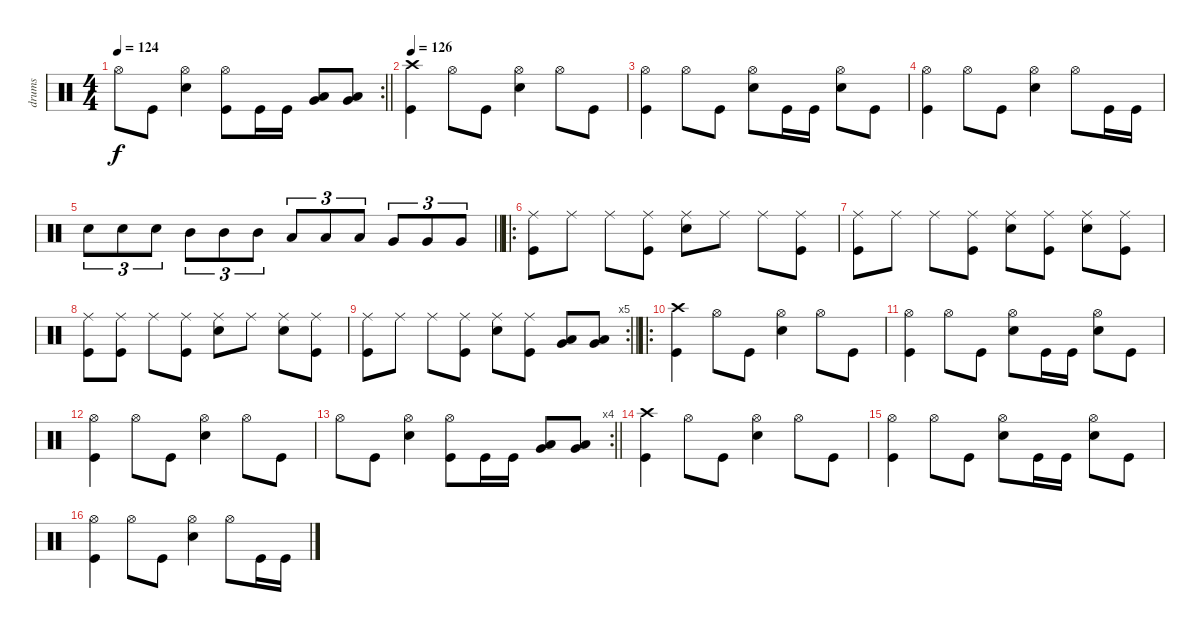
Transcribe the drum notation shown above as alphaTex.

\track ("drums" "drums") {instrument percussion}
\staff {score}
\articulation defaults
\rc 2
\ts (4 4)
\tempo 124
\clef neutral
\barLineRight lightlight
\ks c "Hi-Hat (open)".8{dy f} "Kick (hit)".8
("Electric Snare (hit)" "Hi-Hat (open)").4 ("Kick (hit)" "Hi-Hat (open)").8 "Kick (hit)".16 "Kick (hit)".16 ("Very Low Tom (hit)" "Low Floor Tom (hit)").8 ("Very Low Tom (hit)" "Low Floor Tom (hit)").8 |
\section ("" "")
\tempo 126
("Kick (hit)" "Crash high (hit)").4 "Hi-Hat (open)".8 "Kick (hit)".8 ("Electric Snare (hit)" "Hi-Hat (open)").4 "Hi-Hat (open)".8 "Kick (hit)".8 |
("Kick (hit)" "Hi-Hat (open)").4 "Hi-Hat (open)".8 "Kick (hit)".8 ("Electric Snare (hit)" "Hi-Hat (open)").8 "Kick (hit)".16 "Kick (hit)".16 ("Electric Snare (hit)" "Hi-Hat (open)").8 "Kick (hit)".8 |
("Kick (hit)" "Hi-Hat (open)").4 "Hi-Hat (open)".8 "Kick (hit)".8 ("Hi-Hat (open)" "Electric Snare (hit)").4 "Hi-Hat (open)".8 "Kick (hit)".16 "Kick (hit)".16 |
\barLineRight lightlight "Electric Snare (hit)".8{tu (3 2)} "Electric Snare (hit)".8{tu (3 2)} "Electric Snare (hit)".8{tu (3 2)} "Mid Tom (hit)".8{tu (3 2)} "Mid Tom (hit)".8{tu (3 2)} "Mid Tom (hit)".8{tu (3 2)} "Low Tom (hit)".8{tu (3 2)} "Low Tom (hit)".8{tu (3 2)} "Low Tom (hit)".8{tu (3 2)} "Very Low Tom (hit)".8{tu (3 2)} "Very Low Tom (hit)".8{tu (3 2)} "Very Low Tom (hit)".8{tu (3 2)}
|
\ro
\section ("" "")
("Kick (hit)" "Ride (middle)").8 "Ride (middle)".8 "Ride (middle)".8 ("Kick (hit)" "Ride (middle)").8 ("Electric Snare (hit)" "Ride (middle)").8 "Ride (middle)".8 "Ride (middle)".8 ("Kick (hit)" "Ride (middle)").8 |
("Kick (hit)" "Ride (middle)").8 "Ride (middle)".8 "Ride (middle)".8 ("Kick (hit)" "Ride (middle)").8 ("Electric Snare (hit)" "Ride (middle)").8 ("Kick (hit)" "Ride (middle)").8 ("Electric Snare (hit)" "Ride (middle)").8 ("Kick (hit)" "Ride (middle)").8 |
("Kick (hit)" "Ride (middle)").8 ("Kick (hit)" "Ride (middle)").8 "Ride (middle)".8 ("Kick (hit)" "Ride (middle)").8 ("Electric Snare (hit)" "Ride (middle)").8 "Ride (middle)".8 ("Electric Snare (hit)" "Ride (middle)").8 ("Kick (hit)" "Ride (middle)").8 |
\rc 5
\barLineRight lightlight
("Kick (hit)" "Ride (middle)").8 "Ride (middle)".8 "Ride (middle)".8 ("Kick (hit)" "Ride (middle)").8 ("Electric Snare (hit)" "Ride (middle)").8 ("Kick (hit)" "Ride (middle)").8 ("Low Tom (hit)" "Very Low Tom (hit)").8 ("Very Low Tom (hit)" "Low Floor Tom (hit)").8 |
\ro
\section ("" "")
("Kick (hit)" "Crash high (hit)").4 "Hi-Hat (open)".8 "Kick (hit)".8 ("Electric Snare (hit)" "Hi-Hat (open)").4 "Hi-Hat (open)".8 "Kick (hit)".8 |
("Kick (hit)" "Hi-Hat (open)").4 "Hi-Hat (open)".8 "Kick (hit)".8 ("Electric Snare (hit)" "Hi-Hat (open)").8 "Kick (hit)".16 "Kick (hit)".16 ("Electric Snare (hit)" "Hi-Hat (open)").8 "Kick (hit)".8 |
("Kick (hit)" "Hi-Hat (open)").4 "Hi-Hat (open)".8 "Kick (hit)".8 ("Hi-Hat (open)" "Electric Snare (hit)").4 "Hi-Hat (open)".8 "Kick (hit)".8 |
\rc 4
\barLineRight lightlight "Hi-Hat (open)".8 "Kick (hit)".8
("Electric Snare (hit)" "Hi-Hat (open)").4 ("Kick (hit)" "Hi-Hat (open)").8 "Kick (hit)".16 "Kick (hit)".16 ("Very Low Tom (hit)" "Low Floor Tom (hit)").8 ("Very Low Tom (hit)" "Low Floor Tom (hit)").8 |
\section ("" "")
("Kick (hit)" "Crash high (hit)").4 "Hi-Hat (open)".8 "Kick (hit)".8 ("Electric Snare (hit)" "Hi-Hat (open)").4 "Hi-Hat (open)".8 "Kick (hit)".8 |
("Kick (hit)" "Hi-Hat (open)").4 "Hi-Hat (open)".8 "Kick (hit)".8 ("Electric Snare (hit)" "Hi-Hat (open)").8 "Kick (hit)".16 "Kick (hit)".16 ("Electric Snare (hit)" "Hi-Hat (open)").8 "Kick (hit)".8 |
("Kick (hit)" "Hi-Hat (open)").4 "Hi-Hat (open)".8 "Kick (hit)".8 ("Hi-Hat (open)" "Electric Snare (hit)").4 "Hi-Hat (open)".8 "Kick (hit)".16 "Kick (hit)".16
